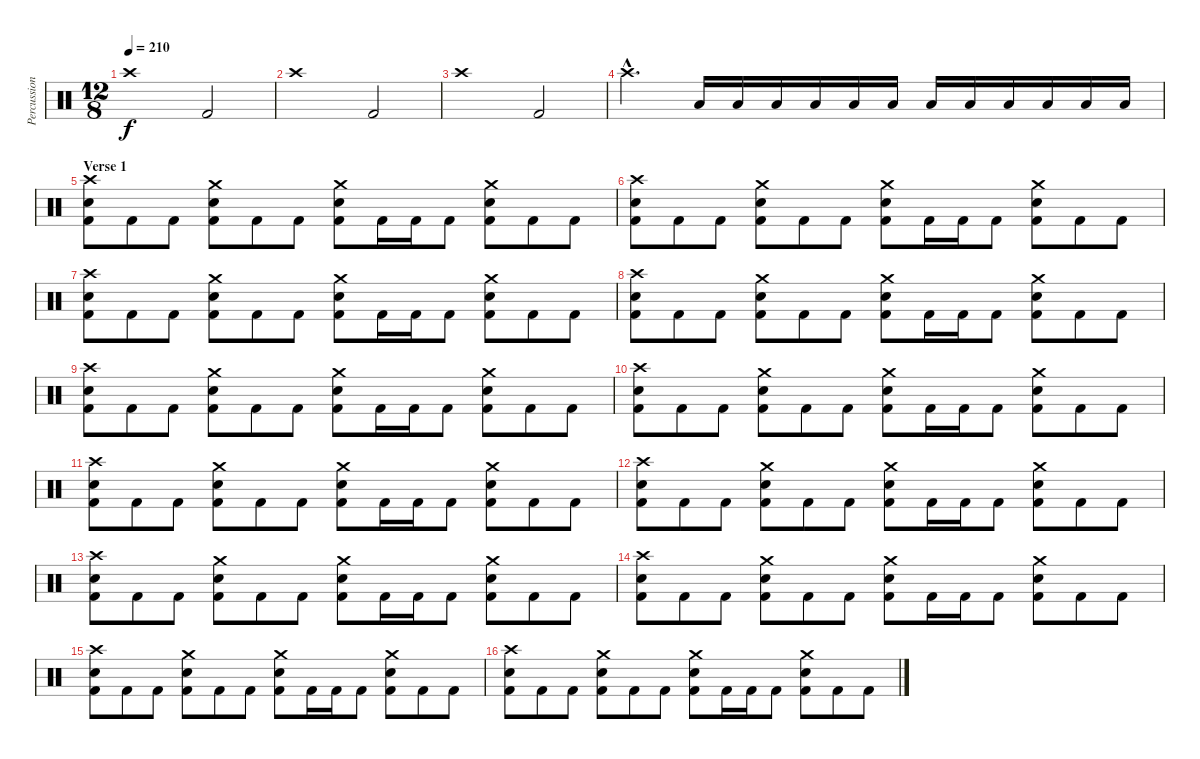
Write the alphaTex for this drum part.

\track ("Percussion" "Percussion") {instrument percussion}
\staff {score}
\articulation defaults
\ts (12 8)
\tempo 210
\clef neutral
\ks c "Crash high (hit)".1{dy f} "Kick (hit) 2".2
|
"Crash high (hit)".1 "Kick (hit) 2".2 |
"Crash high (hit)".1 "Kick (hit) 2".2 |
"Crash high (hit)"{hac}.2{d} "Low Floor Tom (hit)".16 "Low Floor Tom (hit)".16 "Low Floor Tom (hit)".16 "Low Floor Tom (hit)".16 "Low Floor Tom (hit)".16 "Low Floor Tom (hit)".16 "Low Floor Tom (hit)".16 "Low Floor Tom (hit)".16 "Low Floor Tom (hit)".16 "Low Floor Tom (hit)".16 "Low Floor Tom (hit)".16 "Low Floor Tom (hit)".16 |
\section ("" "Verse 1")
("Crash high (hit)" "Snare (hit) 2" "Kick (hit) 2").8 "Kick (hit) 2".8 "Kick (hit) 2".8 ("Crash medium (hit)" "Snare (hit) 2" "Kick (hit) 2").8 "Kick (hit) 2".8 "Kick (hit) 2".8 ("Crash medium (hit)" "Snare (hit) 2" "Kick (hit) 2").8 "Kick (hit) 2".16 "Kick (hit) 2".16 "Kick (hit) 2".8 ("Crash medium (hit)" "Snare (hit) 2" "Kick (hit) 2").8 "Kick (hit) 2".8 "Kick (hit) 2".8 |
("Crash high (hit)" "Snare (hit) 2" "Kick (hit) 2").8 "Kick (hit) 2".8 "Kick (hit) 2".8 ("Crash medium (hit)" "Snare (hit) 2" "Kick (hit) 2").8 "Kick (hit) 2".8 "Kick (hit) 2".8 ("Crash medium (hit)" "Snare (hit) 2" "Kick (hit) 2").8 "Kick (hit) 2".16 "Kick (hit) 2".16 "Kick (hit) 2".8 ("Crash medium (hit)" "Snare (hit) 2" "Kick (hit) 2").8 "Kick (hit) 2".8 "Kick (hit) 2".8 |
("Crash high (hit)" "Snare (hit) 2" "Kick (hit) 2").8 "Kick (hit) 2".8 "Kick (hit) 2".8 ("Crash medium (hit)" "Snare (hit) 2" "Kick (hit) 2").8 "Kick (hit) 2".8 "Kick (hit) 2".8 ("Crash medium (hit)" "Snare (hit) 2" "Kick (hit) 2").8 "Kick (hit) 2".16 "Kick (hit) 2".16 "Kick (hit) 2".8 ("Crash medium (hit)" "Snare (hit) 2" "Kick (hit) 2").8 "Kick (hit) 2".8 "Kick (hit) 2".8 |
("Crash high (hit)" "Snare (hit) 2" "Kick (hit) 2").8 "Kick (hit) 2".8 "Kick (hit) 2".8 ("Crash medium (hit)" "Snare (hit) 2" "Kick (hit) 2").8 "Kick (hit) 2".8 "Kick (hit) 2".8 ("Crash medium (hit)" "Snare (hit) 2" "Kick (hit) 2").8 "Kick (hit) 2".16 "Kick (hit) 2".16 "Kick (hit) 2".8 ("Crash medium (hit)" "Snare (hit) 2" "Kick (hit) 2").8 "Kick (hit) 2".8 "Kick (hit) 2".8 |
("Crash high (hit)" "Snare (hit) 2" "Kick (hit) 2").8 "Kick (hit) 2".8 "Kick (hit) 2".8 ("Crash medium (hit)" "Snare (hit) 2" "Kick (hit) 2").8 "Kick (hit) 2".8 "Kick (hit) 2".8 ("Crash medium (hit)" "Snare (hit) 2" "Kick (hit) 2").8 "Kick (hit) 2".16 "Kick (hit) 2".16 "Kick (hit) 2".8 ("Crash medium (hit)" "Snare (hit) 2" "Kick (hit) 2").8 "Kick (hit) 2".8 "Kick (hit) 2".8 |
("Crash high (hit)" "Snare (hit) 2" "Kick (hit) 2").8 "Kick (hit) 2".8 "Kick (hit) 2".8 ("Crash medium (hit)" "Snare (hit) 2" "Kick (hit) 2").8 "Kick (hit) 2".8 "Kick (hit) 2".8 ("Crash medium (hit)" "Snare (hit) 2" "Kick (hit) 2").8 "Kick (hit) 2".16 "Kick (hit) 2".16 "Kick (hit) 2".8 ("Crash medium (hit)" "Snare (hit) 2" "Kick (hit) 2").8 "Kick (hit) 2".8 "Kick (hit) 2".8 |
("Crash high (hit)" "Snare (hit) 2" "Kick (hit) 2").8 "Kick (hit) 2".8 "Kick (hit) 2".8 ("Crash medium (hit)" "Snare (hit) 2" "Kick (hit) 2").8 "Kick (hit) 2".8 "Kick (hit) 2".8 ("Crash medium (hit)" "Snare (hit) 2" "Kick (hit) 2").8 "Kick (hit) 2".16 "Kick (hit) 2".16 "Kick (hit) 2".8 ("Crash medium (hit)" "Snare (hit) 2" "Kick (hit) 2").8 "Kick (hit) 2".8 "Kick (hit) 2".8 |
("Crash high (hit)" "Snare (hit) 2" "Kick (hit) 2").8 "Kick (hit) 2".8 "Kick (hit) 2".8 ("Crash medium (hit)" "Snare (hit) 2" "Kick (hit) 2").8 "Kick (hit) 2".8 "Kick (hit) 2".8 ("Crash medium (hit)" "Snare (hit) 2" "Kick (hit) 2").8 "Kick (hit) 2".16 "Kick (hit) 2".16 "Kick (hit) 2".8 ("Crash medium (hit)" "Snare (hit) 2" "Kick (hit) 2").8 "Kick (hit) 2".8 "Kick (hit) 2".8 |
("Crash high (hit)" "Snare (hit) 2" "Kick (hit) 2").8 "Kick (hit) 2".8 "Kick (hit) 2".8 ("Crash medium (hit)" "Snare (hit) 2" "Kick (hit) 2").8 "Kick (hit) 2".8 "Kick (hit) 2".8 ("Crash medium (hit)" "Snare (hit) 2" "Kick (hit) 2").8 "Kick (hit) 2".16 "Kick (hit) 2".16 "Kick (hit) 2".8 ("Crash medium (hit)" "Snare (hit) 2" "Kick (hit) 2").8 "Kick (hit) 2".8 "Kick (hit) 2".8 |
("Crash high (hit)" "Snare (hit) 2" "Kick (hit) 2").8 "Kick (hit) 2".8 "Kick (hit) 2".8 ("Crash medium (hit)" "Snare (hit) 2" "Kick (hit) 2").8 "Kick (hit) 2".8 "Kick (hit) 2".8 ("Crash medium (hit)" "Snare (hit) 2" "Kick (hit) 2").8 "Kick (hit) 2".16 "Kick (hit) 2".16 "Kick (hit) 2".8 ("Crash medium (hit)" "Snare (hit) 2" "Kick (hit) 2").8 "Kick (hit) 2".8 "Kick (hit) 2".8 |
("Crash high (hit)" "Snare (hit) 2" "Kick (hit) 2").8 "Kick (hit) 2".8 "Kick (hit) 2".8 ("Crash medium (hit)" "Snare (hit) 2" "Kick (hit) 2").8 "Kick (hit) 2".8 "Kick (hit) 2".8 ("Crash medium (hit)" "Snare (hit) 2" "Kick (hit) 2").8 "Kick (hit) 2".16 "Kick (hit) 2".16 "Kick (hit) 2".8 ("Crash medium (hit)" "Snare (hit) 2" "Kick (hit) 2").8 "Kick (hit) 2".8 "Kick (hit) 2".8 |
("Crash high (hit)" "Snare (hit) 2" "Kick (hit) 2").8 "Kick (hit) 2".8 "Kick (hit) 2".8 ("Crash medium (hit)" "Snare (hit) 2" "Kick (hit) 2").8 "Kick (hit) 2".8 "Kick (hit) 2".8 ("Crash medium (hit)" "Snare (hit) 2" "Kick (hit) 2").8 "Kick (hit) 2".16 "Kick (hit) 2".16 "Kick (hit) 2".8 ("Crash medium (hit)" "Snare (hit) 2" "Kick (hit) 2").8 "Kick (hit) 2".8 "Kick (hit) 2".8
